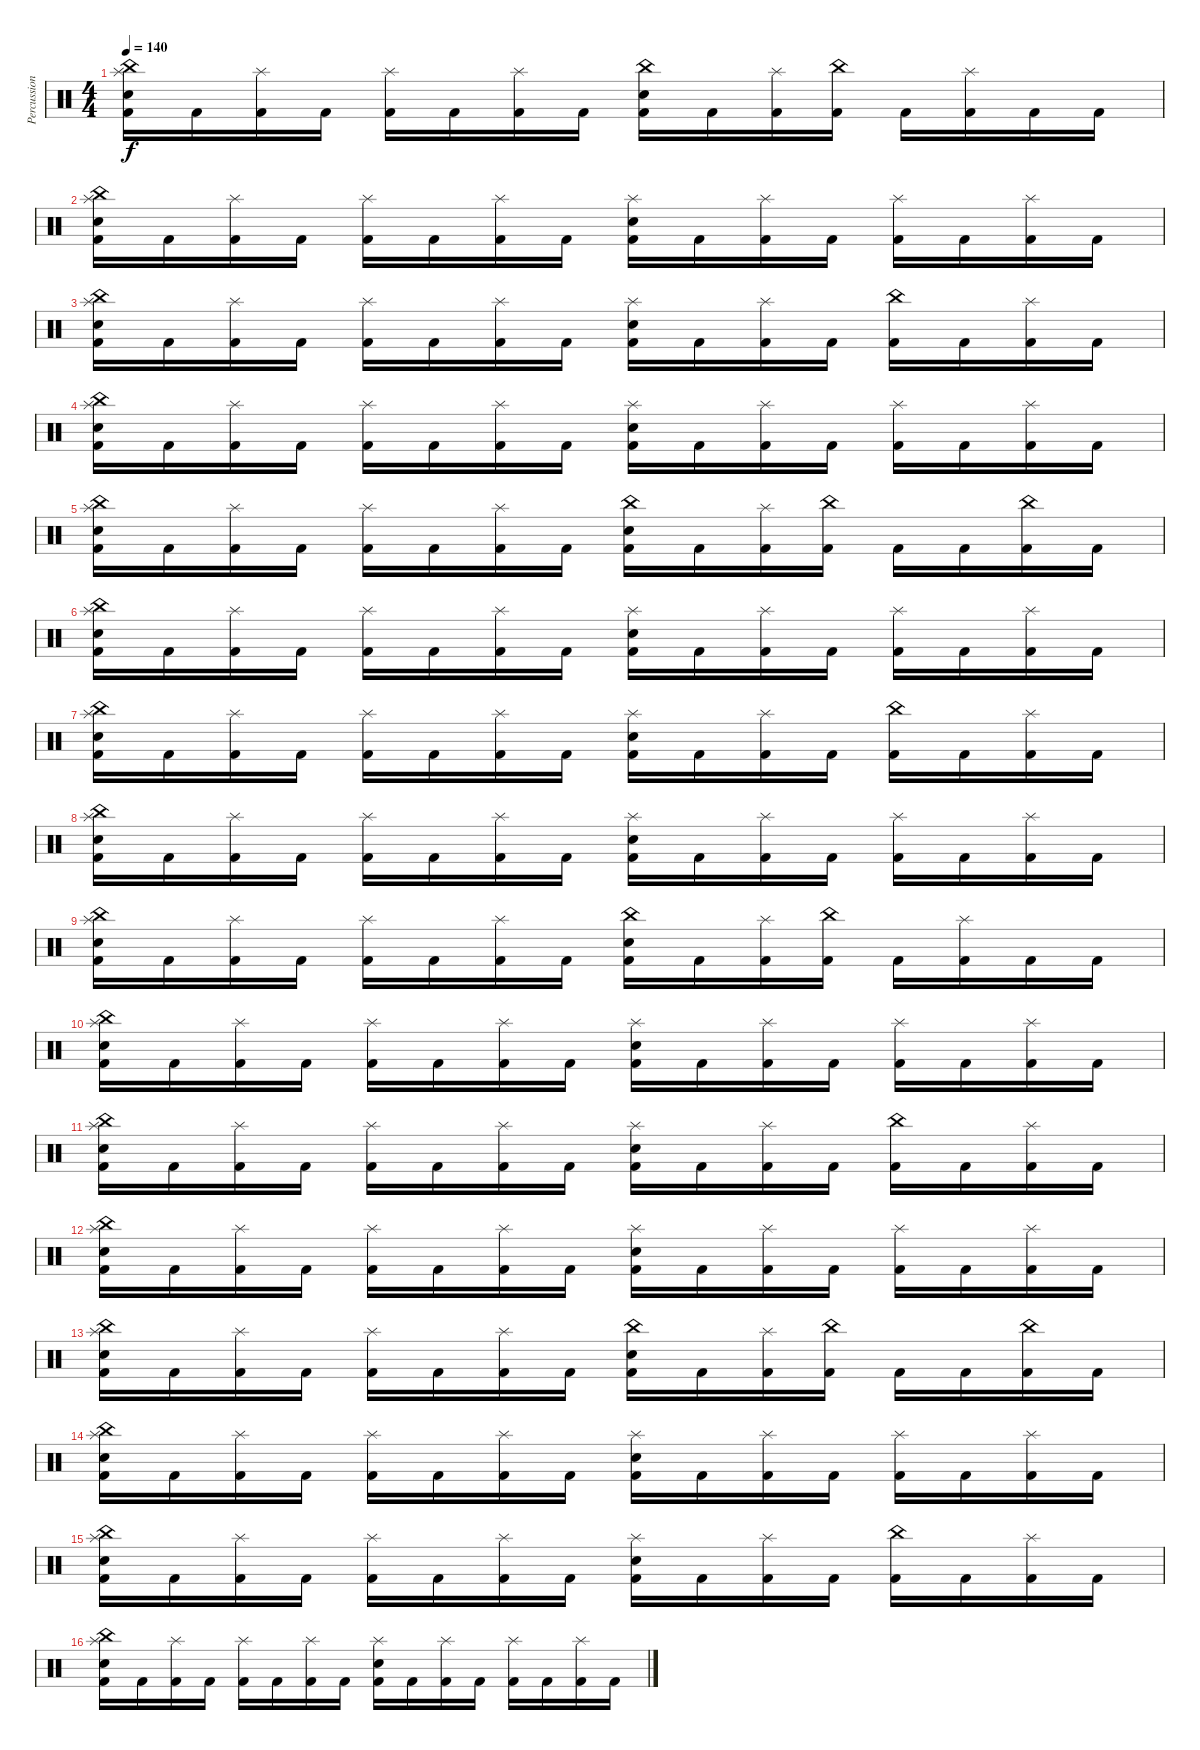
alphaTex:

\track ("Percussion" "Percussion") {instrument percussion}
\staff {score}
\articulation defaults
\ts (4 4)
\tempo 140
\clef neutral
\ks c
("China (hit)" "Splash (hit)" "Electric Snare (hit)" "Kick (hit) 2").16{dy f} "Kick (hit) 2".16 ("Splash (hit)" "Kick (hit) 2").16 "Kick (hit) 2".16 ("Splash (hit)" "Kick (hit) 2").16 "Kick (hit) 2".16 ("Splash (hit)" "Kick (hit) 2").16 "Kick (hit) 2".16 ("China (hit)" "Electric Snare (hit)" "Kick (hit) 2").16 "Kick (hit) 2".16 ("Splash (hit)" "Kick (hit) 2").16 ("China (hit)" "Kick (hit) 2").16 "Kick (hit) 2".16 ("Splash (hit)" "Kick (hit) 2").16 "Kick (hit) 2".16 "Kick (hit) 2".16 |
("China (hit)" "Splash (hit)" "Electric Snare (hit)" "Kick (hit) 2").16 "Kick (hit) 2".16 ("Splash (hit)" "Kick (hit) 2").16 "Kick (hit) 2".16 ("Splash (hit)" "Kick (hit) 2").16 "Kick (hit) 2".16 ("Splash (hit)" "Kick (hit) 2").16 "Kick (hit) 2".16 ("Splash (hit)" "Electric Snare (hit)" "Kick (hit) 2").16 "Kick (hit) 2".16 ("Splash (hit)" "Kick (hit) 2").16 "Kick (hit) 2".16 ("Splash (hit)" "Kick (hit) 2").16 "Kick (hit) 2".16 ("Splash (hit)" "Kick (hit) 2").16 "Kick (hit) 2".16 |
("China (hit)" "Splash (hit)" "Electric Snare (hit)" "Kick (hit) 2").16 "Kick (hit) 2".16 ("Splash (hit)" "Kick (hit) 2").16 "Kick (hit) 2".16 ("Splash (hit)" "Kick (hit) 2").16 "Kick (hit) 2".16 ("Splash (hit)" "Kick (hit) 2").16 "Kick (hit) 2".16 ("Splash (hit)" "Electric Snare (hit)" "Kick (hit) 2").16 "Kick (hit) 2".16 ("Splash (hit)" "Kick (hit) 2").16 "Kick (hit) 2".16 ("China (hit)" "Kick (hit) 2").16 "Kick (hit) 2".16 ("Splash (hit)" "Kick (hit) 2").16 "Kick (hit) 2".16 |
("China (hit)" "Splash (hit)" "Electric Snare (hit)" "Kick (hit) 2").16 "Kick (hit) 2".16 ("Splash (hit)" "Kick (hit) 2").16 "Kick (hit) 2".16 ("Splash (hit)" "Kick (hit) 2").16 "Kick (hit) 2".16 ("Splash (hit)" "Kick (hit) 2").16 "Kick (hit) 2".16 ("Splash (hit)" "Electric Snare (hit)" "Kick (hit) 2").16 "Kick (hit) 2".16 ("Splash (hit)" "Kick (hit) 2").16 "Kick (hit) 2".16 ("Splash (hit)" "Kick (hit) 2").16 "Kick (hit) 2".16 ("Splash (hit)" "Kick (hit) 2").16 "Kick (hit) 2".16 |
("China (hit)" "Splash (hit)" "Electric Snare (hit)" "Kick (hit) 2").16 "Kick (hit) 2".16 ("Splash (hit)" "Kick (hit) 2").16 "Kick (hit) 2".16 ("Splash (hit)" "Kick (hit) 2").16 "Kick (hit) 2".16 ("Splash (hit)" "Kick (hit) 2").16 "Kick (hit) 2".16 ("China (hit)" "Electric Snare (hit)" "Kick (hit) 2").16 "Kick (hit) 2".16 ("Splash (hit)" "Kick (hit) 2").16 ("China (hit)" "Kick (hit) 2").16 "Kick (hit) 2".16 "Kick (hit) 2".16 ("China (hit)" "Kick (hit) 2").16 "Kick (hit) 2".16 |
("China (hit)" "Splash (hit)" "Electric Snare (hit)" "Kick (hit) 2").16 "Kick (hit) 2".16 ("Splash (hit)" "Kick (hit) 2").16 "Kick (hit) 2".16 ("Splash (hit)" "Kick (hit) 2").16 "Kick (hit) 2".16 ("Splash (hit)" "Kick (hit) 2").16 "Kick (hit) 2".16 ("Splash (hit)" "Electric Snare (hit)" "Kick (hit) 2").16 "Kick (hit) 2".16 ("Splash (hit)" "Kick (hit) 2").16 "Kick (hit) 2".16 ("Splash (hit)" "Kick (hit) 2").16 "Kick (hit) 2".16 ("Splash (hit)" "Kick (hit) 2").16 "Kick (hit) 2".16 |
("China (hit)" "Splash (hit)" "Electric Snare (hit)" "Kick (hit) 2").16 "Kick (hit) 2".16 ("Splash (hit)" "Kick (hit) 2").16 "Kick (hit) 2".16 ("Splash (hit)" "Kick (hit) 2").16 "Kick (hit) 2".16 ("Splash (hit)" "Kick (hit) 2").16 "Kick (hit) 2".16 ("Splash (hit)" "Electric Snare (hit)" "Kick (hit) 2").16 "Kick (hit) 2".16 ("Splash (hit)" "Kick (hit) 2").16 "Kick (hit) 2".16 ("China (hit)" "Kick (hit) 2").16 "Kick (hit) 2".16 ("Splash (hit)" "Kick (hit) 2").16 "Kick (hit) 2".16 |
("China (hit)" "Splash (hit)" "Electric Snare (hit)" "Kick (hit) 2").16 "Kick (hit) 2".16 ("Splash (hit)" "Kick (hit) 2").16 "Kick (hit) 2".16 ("Splash (hit)" "Kick (hit) 2").16 "Kick (hit) 2".16 ("Splash (hit)" "Kick (hit) 2").16 "Kick (hit) 2".16 ("Splash (hit)" "Electric Snare (hit)" "Kick (hit) 2").16 "Kick (hit) 2".16 ("Splash (hit)" "Kick (hit) 2").16 "Kick (hit) 2".16 ("Splash (hit)" "Kick (hit) 2").16 "Kick (hit) 2".16 ("Splash (hit)" "Kick (hit) 2").16 "Kick (hit) 2".16 |
("China (hit)" "Splash (hit)" "Electric Snare (hit)" "Kick (hit) 2").16 "Kick (hit) 2".16 ("Splash (hit)" "Kick (hit) 2").16 "Kick (hit) 2".16 ("Splash (hit)" "Kick (hit) 2").16 "Kick (hit) 2".16 ("Splash (hit)" "Kick (hit) 2").16 "Kick (hit) 2".16 ("China (hit)" "Electric Snare (hit)" "Kick (hit) 2").16 "Kick (hit) 2".16 ("Splash (hit)" "Kick (hit) 2").16 ("China (hit)" "Kick (hit) 2").16 "Kick (hit) 2".16 ("Splash (hit)" "Kick (hit) 2").16 "Kick (hit) 2".16 "Kick (hit) 2".16 |
("China (hit)" "Splash (hit)" "Electric Snare (hit)" "Kick (hit) 2").16 "Kick (hit) 2".16 ("Splash (hit)" "Kick (hit) 2").16 "Kick (hit) 2".16 ("Splash (hit)" "Kick (hit) 2").16 "Kick (hit) 2".16 ("Splash (hit)" "Kick (hit) 2").16 "Kick (hit) 2".16 ("Splash (hit)" "Electric Snare (hit)" "Kick (hit) 2").16 "Kick (hit) 2".16 ("Splash (hit)" "Kick (hit) 2").16 "Kick (hit) 2".16 ("Splash (hit)" "Kick (hit) 2").16 "Kick (hit) 2".16 ("Splash (hit)" "Kick (hit) 2").16 "Kick (hit) 2".16 |
("China (hit)" "Splash (hit)" "Electric Snare (hit)" "Kick (hit) 2").16 "Kick (hit) 2".16 ("Splash (hit)" "Kick (hit) 2").16 "Kick (hit) 2".16 ("Splash (hit)" "Kick (hit) 2").16 "Kick (hit) 2".16 ("Splash (hit)" "Kick (hit) 2").16 "Kick (hit) 2".16 ("Splash (hit)" "Electric Snare (hit)" "Kick (hit) 2").16 "Kick (hit) 2".16 ("Splash (hit)" "Kick (hit) 2").16 "Kick (hit) 2".16 ("China (hit)" "Kick (hit) 2").16 "Kick (hit) 2".16 ("Splash (hit)" "Kick (hit) 2").16 "Kick (hit) 2".16 |
("China (hit)" "Splash (hit)" "Electric Snare (hit)" "Kick (hit) 2").16 "Kick (hit) 2".16 ("Splash (hit)" "Kick (hit) 2").16 "Kick (hit) 2".16 ("Splash (hit)" "Kick (hit) 2").16 "Kick (hit) 2".16 ("Splash (hit)" "Kick (hit) 2").16 "Kick (hit) 2".16 ("Splash (hit)" "Electric Snare (hit)" "Kick (hit) 2").16 "Kick (hit) 2".16 ("Splash (hit)" "Kick (hit) 2").16 "Kick (hit) 2".16 ("Splash (hit)" "Kick (hit) 2").16 "Kick (hit) 2".16 ("Splash (hit)" "Kick (hit) 2").16 "Kick (hit) 2".16 |
("China (hit)" "Splash (hit)" "Electric Snare (hit)" "Kick (hit) 2").16 "Kick (hit) 2".16 ("Splash (hit)" "Kick (hit) 2").16 "Kick (hit) 2".16 ("Splash (hit)" "Kick (hit) 2").16 "Kick (hit) 2".16 ("Splash (hit)" "Kick (hit) 2").16 "Kick (hit) 2".16 ("China (hit)" "Electric Snare (hit)" "Kick (hit) 2").16 "Kick (hit) 2".16 ("Splash (hit)" "Kick (hit) 2").16 ("China (hit)" "Kick (hit) 2").16 "Kick (hit) 2".16 "Kick (hit) 2".16 ("China (hit)" "Kick (hit) 2").16 "Kick (hit) 2".16 |
("China (hit)" "Splash (hit)" "Electric Snare (hit)" "Kick (hit) 2").16 "Kick (hit) 2".16 ("Splash (hit)" "Kick (hit) 2").16 "Kick (hit) 2".16 ("Splash (hit)" "Kick (hit) 2").16 "Kick (hit) 2".16 ("Splash (hit)" "Kick (hit) 2").16 "Kick (hit) 2".16 ("Splash (hit)" "Electric Snare (hit)" "Kick (hit) 2").16 "Kick (hit) 2".16 ("Splash (hit)" "Kick (hit) 2").16 "Kick (hit) 2".16 ("Splash (hit)" "Kick (hit) 2").16 "Kick (hit) 2".16 ("Splash (hit)" "Kick (hit) 2").16 "Kick (hit) 2".16 |
("China (hit)" "Splash (hit)" "Electric Snare (hit)" "Kick (hit) 2").16 "Kick (hit) 2".16 ("Splash (hit)" "Kick (hit) 2").16 "Kick (hit) 2".16 ("Splash (hit)" "Kick (hit) 2").16 "Kick (hit) 2".16 ("Splash (hit)" "Kick (hit) 2").16 "Kick (hit) 2".16 ("Splash (hit)" "Electric Snare (hit)" "Kick (hit) 2").16 "Kick (hit) 2".16 ("Splash (hit)" "Kick (hit) 2").16 "Kick (hit) 2".16 ("China (hit)" "Kick (hit) 2").16 "Kick (hit) 2".16 ("Splash (hit)" "Kick (hit) 2").16 "Kick (hit) 2".16 |
("China (hit)" "Splash (hit)" "Electric Snare (hit)" "Kick (hit) 2").16 "Kick (hit) 2".16 ("Splash (hit)" "Kick (hit) 2").16 "Kick (hit) 2".16 ("Splash (hit)" "Kick (hit) 2").16 "Kick (hit) 2".16 ("Splash (hit)" "Kick (hit) 2").16 "Kick (hit) 2".16 ("Splash (hit)" "Electric Snare (hit)" "Kick (hit) 2").16 "Kick (hit) 2".16 ("Splash (hit)" "Kick (hit) 2").16 "Kick (hit) 2".16 ("Splash (hit)" "Kick (hit) 2").16 "Kick (hit) 2".16 ("Splash (hit)" "Kick (hit) 2").16 "Kick (hit) 2".16
